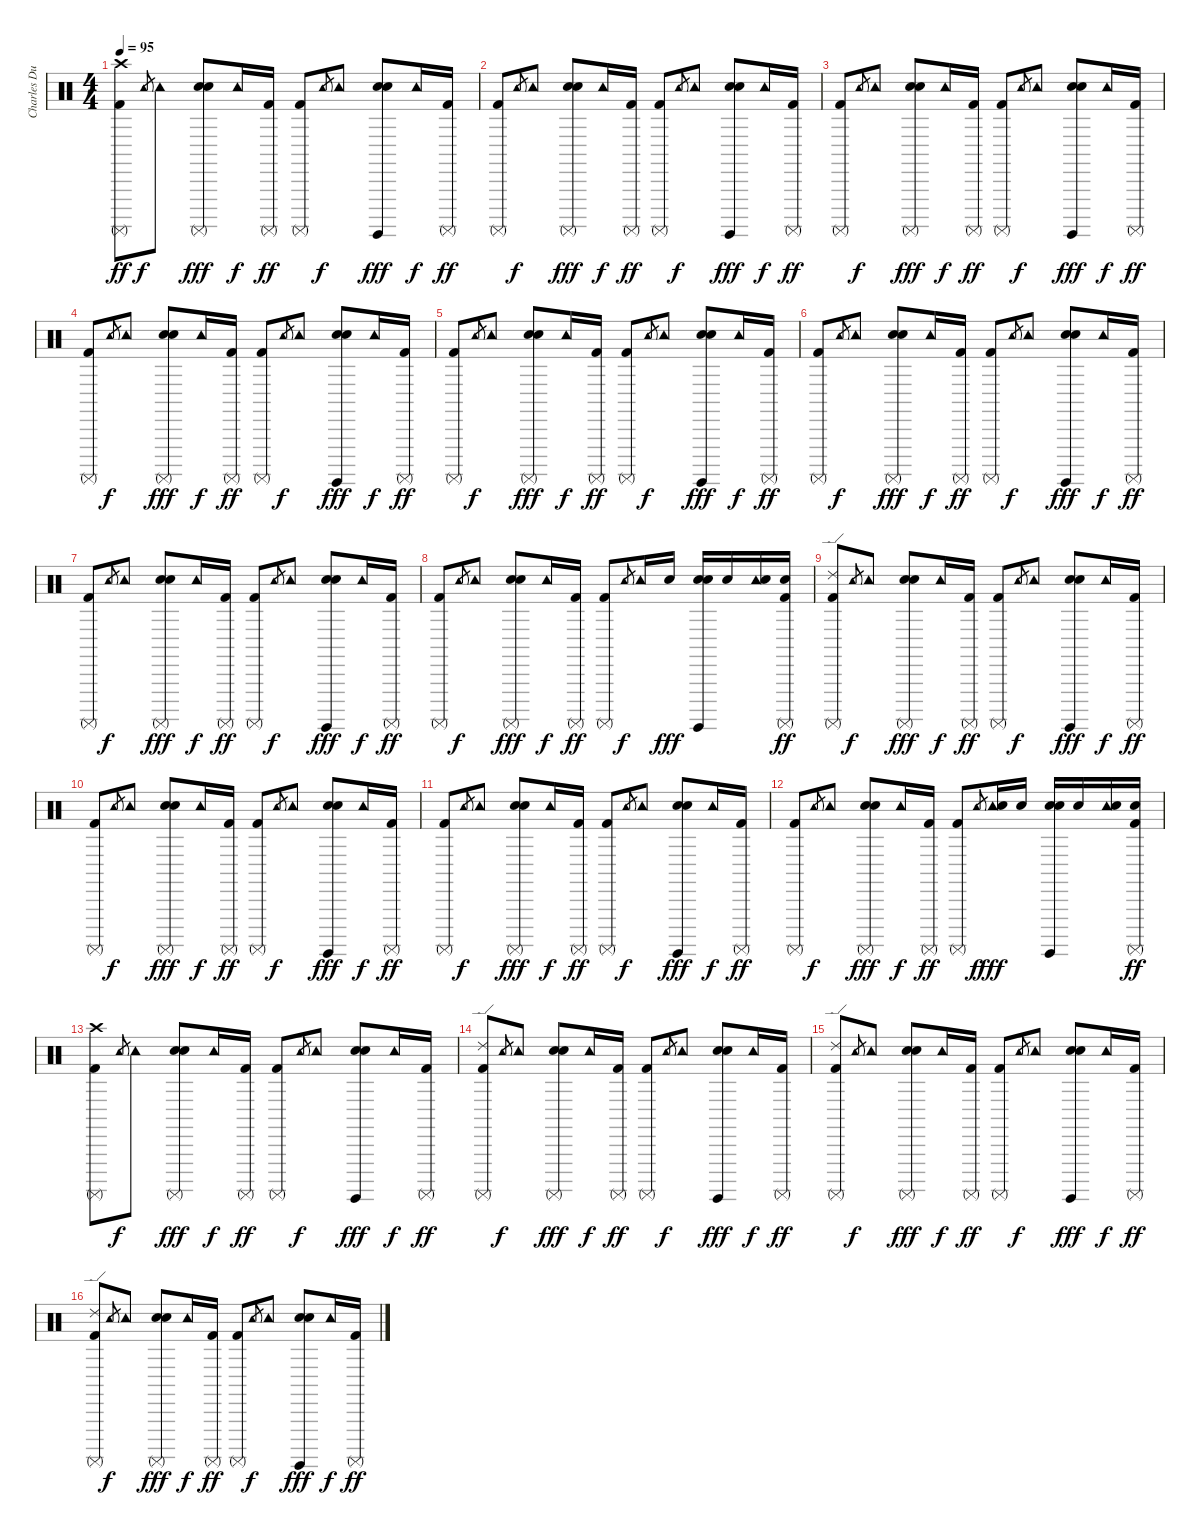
\track ("Charles Dubreuil - Batterie" "Charles Du") {instrument percussion}
\staff {score}
\articulation defaults
\ts (4 4)
\tempo 95
\clef neutral
\ks c
("Crash high (hit)" "Surdo (mute)" "Kick (hit) 2").8{dy ff} "Tambourine (hit)".8{gr dy f} "Tambourine (hit)".8 ("Hand Clap (hit)" "Electric Snare (hit)" "Surdo (mute)").8{dy fff} "Tambourine (hit)".16{dy f} ("Surdo (mute)" "Kick (hit) 2").16{dy ff} ("Surdo (mute)" "Kick (hit) 2").8 "Tambourine (hit)".8{gr dy f} "Tambourine (hit)".8 ("Hand Clap (hit)" "Electric Snare (hit)" "Surdo (hit)").8{dy fff} "Tambourine (hit)".16{dy f} ("Surdo (mute)" "Kick (hit) 2").16{dy ff} |
("Surdo (mute)" "Kick (hit) 2").8 "Tambourine (hit)".8{gr dy f} "Tambourine (hit)".8 ("Hand Clap (hit)" "Electric Snare (hit)" "Surdo (mute)").8{dy fff} "Tambourine (hit)".16{dy f} ("Surdo (mute)" "Kick (hit) 2").16{dy ff} ("Surdo (mute)" "Kick (hit) 2").8 "Tambourine (hit)".8{gr dy f} "Tambourine (hit)".8 ("Hand Clap (hit)" "Electric Snare (hit)" "Surdo (hit)").8{dy fff} "Tambourine (hit)".16{dy f} ("Surdo (mute)" "Kick (hit) 2").16{dy ff} |
("Surdo (mute)" "Kick (hit) 2").8 "Tambourine (hit)".8{gr dy f} "Tambourine (hit)".8 ("Hand Clap (hit)" "Electric Snare (hit)" "Surdo (mute)").8{dy fff} "Tambourine (hit)".16{dy f} ("Surdo (mute)" "Kick (hit) 2").16{dy ff} ("Surdo (mute)" "Kick (hit) 2").8 "Tambourine (hit)".8{gr dy f} "Tambourine (hit)".8 ("Hand Clap (hit)" "Electric Snare (hit)" "Surdo (hit)").8{dy fff} "Tambourine (hit)".16{dy f} ("Surdo (mute)" "Kick (hit) 2").16{dy ff} |
("Surdo (mute)" "Kick (hit) 2").8 "Tambourine (hit)".8{gr dy f} "Tambourine (hit)".8 ("Hand Clap (hit)" "Electric Snare (hit)" "Surdo (mute)").8{dy fff} "Tambourine (hit)".16{dy f} ("Surdo (mute)" "Kick (hit) 2").16{dy ff} ("Surdo (mute)" "Kick (hit) 2").8 "Tambourine (hit)".8{gr dy f} "Tambourine (hit)".8 ("Hand Clap (hit)" "Electric Snare (hit)" "Surdo (hit)").8{dy fff} "Tambourine (hit)".16{dy f} ("Surdo (mute)" "Kick (hit) 2").16{dy ff} |
("Surdo (mute)" "Kick (hit) 2").8 "Tambourine (hit)".8{gr dy f} "Tambourine (hit)".8 ("Hand Clap (hit)" "Electric Snare (hit)" "Surdo (mute)").8{dy fff} "Tambourine (hit)".16{dy f} ("Surdo (mute)" "Kick (hit) 2").16{dy ff} ("Surdo (mute)" "Kick (hit) 2").8 "Tambourine (hit)".8{gr dy f} "Tambourine (hit)".8 ("Hand Clap (hit)" "Electric Snare (hit)" "Surdo (hit)").8{dy fff} "Tambourine (hit)".16{dy f} ("Surdo (mute)" "Kick (hit) 2").16{dy ff} |
("Surdo (mute)" "Kick (hit) 2").8 "Tambourine (hit)".8{gr dy f} "Tambourine (hit)".8 ("Hand Clap (hit)" "Electric Snare (hit)" "Surdo (mute)").8{dy fff} "Tambourine (hit)".16{dy f} ("Surdo (mute)" "Kick (hit) 2").16{dy ff} ("Surdo (mute)" "Kick (hit) 2").8 "Tambourine (hit)".8{gr dy f} "Tambourine (hit)".8 ("Hand Clap (hit)" "Electric Snare (hit)" "Surdo (hit)").8{dy fff} "Tambourine (hit)".16{dy f} ("Surdo (mute)" "Kick (hit) 2").16{dy ff} |
("Surdo (mute)" "Kick (hit) 2").8 "Tambourine (hit)".8{gr dy f} "Tambourine (hit)".8 ("Hand Clap (hit)" "Electric Snare (hit)" "Surdo (mute)").8{dy fff} "Tambourine (hit)".16{dy f} ("Surdo (mute)" "Kick (hit) 2").16{dy ff} ("Surdo (mute)" "Kick (hit) 2").8 "Tambourine (hit)".8{gr dy f} "Tambourine (hit)".8 ("Hand Clap (hit)" "Electric Snare (hit)" "Surdo (hit)").8{dy fff} "Tambourine (hit)".16{dy f} ("Surdo (mute)" "Kick (hit) 2").16{dy ff} |
("Surdo (mute)" "Kick (hit) 2").8 "Tambourine (hit)".8{gr dy f} "Tambourine (hit)".8 ("Hand Clap (hit)" "Electric Snare (hit)" "Surdo (mute)").8{dy fff} "Tambourine (hit)".16{dy f} ("Surdo (mute)" "Kick (hit) 2").16{dy ff} ("Surdo (mute)" "Kick (hit) 2").8 "Tambourine (hit)".8{gr dy f} "Tambourine (hit)".16 "Electric Snare (hit)".16{dy fff} ("Hand Clap (hit)" "Electric Snare (hit)" "Surdo (hit)").16 "Electric Snare (hit)".16 ("Tambourine (hit)" "Electric Snare (hit)").16 ("Electric Snare (hit)" "Surdo (mute)" "Kick (hit) 2").16{dy ff} |
("Ride (edge) 2" "Surdo (mute)" "Kick (hit) 2").8 "Tambourine (hit)".8{gr dy f} "Tambourine (hit)".8 ("Hand Clap (hit)" "Electric Snare (hit)" "Surdo (mute)").8{dy fff} "Tambourine (hit)".16{dy f} ("Surdo (mute)" "Kick (hit) 2").16{dy ff} ("Surdo (mute)" "Kick (hit) 2").8 "Tambourine (hit)".8{gr dy f} "Tambourine (hit)".8 ("Hand Clap (hit)" "Electric Snare (hit)" "Surdo (hit)").8{dy fff} "Tambourine (hit)".16{dy f} ("Surdo (mute)" "Kick (hit) 2").16{dy ff} |
("Surdo (mute)" "Kick (hit) 2").8 "Tambourine (hit)".8{gr dy f} "Tambourine (hit)".8 ("Hand Clap (hit)" "Electric Snare (hit)" "Surdo (mute)").8{dy fff} "Tambourine (hit)".16{dy f} ("Surdo (mute)" "Kick (hit) 2").16{dy ff} ("Surdo (mute)" "Kick (hit) 2").8 "Tambourine (hit)".8{gr dy f} "Tambourine (hit)".8 ("Hand Clap (hit)" "Electric Snare (hit)" "Surdo (hit)").8{dy fff} "Tambourine (hit)".16{dy f} ("Surdo (mute)" "Kick (hit) 2").16{dy ff} |
("Surdo (mute)" "Kick (hit) 2").8 "Tambourine (hit)".8{gr dy f} "Tambourine (hit)".8 ("Hand Clap (hit)" "Electric Snare (hit)" "Surdo (mute)").8{dy fff} "Tambourine (hit)".16{dy f} ("Surdo (mute)" "Kick (hit) 2").16{dy ff} ("Surdo (mute)" "Kick (hit) 2").8 "Tambourine (hit)".8{gr dy f} "Tambourine (hit)".8 ("Hand Clap (hit)" "Electric Snare (hit)" "Surdo (hit)").8{dy fff} "Tambourine (hit)".16{dy f} ("Surdo (mute)" "Kick (hit) 2").16{dy ff} |
("Surdo (mute)" "Kick (hit) 2").8 "Tambourine (hit)".8{gr dy f} "Tambourine (hit)".8 ("Hand Clap (hit)" "Electric Snare (hit)" "Surdo (mute)").8{dy fff} "Tambourine (hit)".16{dy f} ("Surdo (mute)" "Kick (hit) 2").16{dy ff} ("Surdo (mute)" "Kick (hit) 2").8 "Tambourine (hit)".8{gr dy f} ("Tambourine (hit)" "Electric Snare (hit)").16{dy fff} "Electric Snare (hit)".16 ("Hand Clap (hit)" "Electric Snare (hit)" "Surdo (hit)").16 "Electric Snare (hit)".16 ("Tambourine (hit)" "Electric Snare (hit)").16 ("Electric Snare (hit)" "Surdo (mute)" "Kick (hit) 2").16{dy ff} |
("Crash high (hit)" "Surdo (mute)" "Kick (hit) 2").8 "Tambourine (hit)".8{gr dy f} "Tambourine (hit)".8 ("Hand Clap (hit)" "Electric Snare (hit)" "Surdo (mute)").8{dy fff} "Tambourine (hit)".16{dy f} ("Surdo (mute)" "Kick (hit) 2").16{dy ff} ("Surdo (mute)" "Kick (hit) 2").8 "Tambourine (hit)".8{gr dy f} "Tambourine (hit)".8 ("Hand Clap (hit)" "Electric Snare (hit)" "Surdo (hit)").8{dy fff} "Tambourine (hit)".16{dy f} ("Surdo (mute)" "Kick (hit) 2").16{dy ff} |
("Ride (edge) 2" "Surdo (mute)" "Kick (hit) 2").8 "Tambourine (hit)".8{gr dy f} "Tambourine (hit)".8 ("Hand Clap (hit)" "Electric Snare (hit)" "Surdo (mute)").8{dy fff} "Tambourine (hit)".16{dy f} ("Surdo (mute)" "Kick (hit) 2").16{dy ff} ("Surdo (mute)" "Kick (hit) 2").8 "Tambourine (hit)".8{gr dy f} "Tambourine (hit)".8 ("Hand Clap (hit)" "Electric Snare (hit)" "Surdo (hit)").8{dy fff} "Tambourine (hit)".16{dy f} ("Surdo (mute)" "Kick (hit) 2").16{dy ff} |
("Ride (edge) 2" "Surdo (mute)" "Kick (hit) 2").8 "Tambourine (hit)".8{gr dy f} "Tambourine (hit)".8 ("Hand Clap (hit)" "Electric Snare (hit)" "Surdo (mute)").8{dy fff} "Tambourine (hit)".16{dy f} ("Surdo (mute)" "Kick (hit) 2").16{dy ff} ("Surdo (mute)" "Kick (hit) 2").8 "Tambourine (hit)".8{gr dy f} "Tambourine (hit)".8 ("Hand Clap (hit)" "Electric Snare (hit)" "Surdo (hit)").8{dy fff} "Tambourine (hit)".16{dy f} ("Surdo (mute)" "Kick (hit) 2").16{dy ff} |
("Ride (edge) 2" "Surdo (mute)" "Kick (hit) 2").8 "Tambourine (hit)".8{gr dy f} "Tambourine (hit)".8 ("Hand Clap (hit)" "Electric Snare (hit)" "Surdo (mute)").8{dy fff} "Tambourine (hit)".16{dy f} ("Surdo (mute)" "Kick (hit) 2").16{dy ff} ("Surdo (mute)" "Kick (hit) 2").8 "Tambourine (hit)".8{gr dy f} "Tambourine (hit)".8 ("Hand Clap (hit)" "Electric Snare (hit)" "Surdo (hit)").8{dy fff} "Tambourine (hit)".16{dy f} ("Surdo (mute)" "Kick (hit) 2").16{dy ff}
